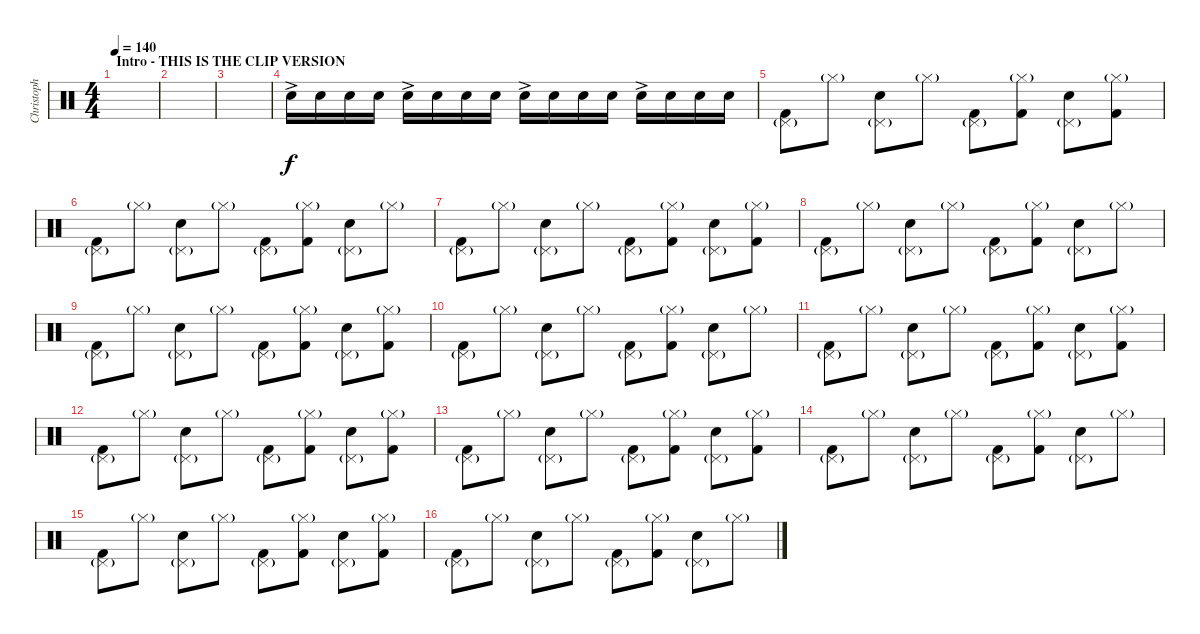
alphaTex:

\track ("Christoph" "Christoph") {instrument percussion}
\staff {score}
\articulation defaults
\ts (4 4)
\section ("" "Intro - THIS IS THE CLIP VERSION")
\tempo 140
\clef neutral
\ks c
|
|
|
"Electric Snare (hit)"{ac}.16 "Electric Snare (hit)".16 "Electric Snare (hit)".16 "Electric Snare (hit)".16 "Electric Snare (hit)"{ac}.16 "Electric Snare (hit)".16 "Electric Snare (hit)".16 "Electric Snare (hit)".16 "Electric Snare (hit)"{ac}.16 "Electric Snare (hit)".16 "Electric Snare (hit)".16 "Electric Snare (hit)".16 "Electric Snare (hit)"{ac}.16 "Electric Snare (hit)".16 "Electric Snare (hit)".16 "Electric Snare (hit)".16 |
("Pedal Hi-Hat (hit)"{g} "Kick (hit) 2").8 "Hi-Hat (closed)"{g}.8 ("Pedal Hi-Hat (hit)"{g} "Electric Snare (hit)").8 "Hi-Hat (closed)"{g}.8 ("Pedal Hi-Hat (hit)"{g} "Kick (hit) 2").8 ("Hi-Hat (closed)"{g} "Kick (hit) 2").8 ("Pedal Hi-Hat (hit)"{g} "Electric Snare (hit)").8 ("Hi-Hat (closed)"{g} "Kick (hit) 2").8 |
("Pedal Hi-Hat (hit)"{g} "Kick (hit) 2").8 "Hi-Hat (closed)"{g}.8 ("Pedal Hi-Hat (hit)"{g} "Electric Snare (hit)").8 "Hi-Hat (closed)"{g}.8 ("Pedal Hi-Hat (hit)"{g} "Kick (hit) 2").8 ("Hi-Hat (closed)"{g} "Kick (hit) 2").8 ("Pedal Hi-Hat (hit)"{g} "Electric Snare (hit)").8 "Hi-Hat (closed)"{g}.8 |
("Pedal Hi-Hat (hit)"{g} "Kick (hit) 2").8 "Hi-Hat (closed)"{g}.8 ("Pedal Hi-Hat (hit)"{g} "Electric Snare (hit)").8 "Hi-Hat (closed)"{g}.8 ("Pedal Hi-Hat (hit)"{g} "Kick (hit) 2").8 ("Hi-Hat (closed)"{g} "Kick (hit) 2").8 ("Pedal Hi-Hat (hit)"{g} "Electric Snare (hit)").8 ("Hi-Hat (closed)"{g} "Kick (hit) 2").8 |
("Pedal Hi-Hat (hit)"{g} "Kick (hit) 2").8 "Hi-Hat (closed)"{g}.8 ("Pedal Hi-Hat (hit)"{g} "Electric Snare (hit)").8 "Hi-Hat (closed)"{g}.8 ("Pedal Hi-Hat (hit)"{g} "Kick (hit) 2").8 ("Hi-Hat (closed)"{g} "Kick (hit) 2").8 ("Pedal Hi-Hat (hit)"{g} "Electric Snare (hit)").8 "Hi-Hat (closed)"{g}.8 |
("Pedal Hi-Hat (hit)"{g} "Kick (hit) 2").8 "Hi-Hat (closed)"{g}.8 ("Pedal Hi-Hat (hit)"{g} "Electric Snare (hit)").8 "Hi-Hat (closed)"{g}.8 ("Pedal Hi-Hat (hit)"{g} "Kick (hit) 2").8 ("Hi-Hat (closed)"{g} "Kick (hit) 2").8 ("Pedal Hi-Hat (hit)"{g} "Electric Snare (hit)").8 ("Hi-Hat (closed)"{g} "Kick (hit) 2").8 |
("Pedal Hi-Hat (hit)"{g} "Kick (hit) 2").8 "Hi-Hat (closed)"{g}.8 ("Pedal Hi-Hat (hit)"{g} "Electric Snare (hit)").8 "Hi-Hat (closed)"{g}.8 ("Pedal Hi-Hat (hit)"{g} "Kick (hit) 2").8 ("Hi-Hat (closed)"{g} "Kick (hit) 2").8 ("Pedal Hi-Hat (hit)"{g} "Electric Snare (hit)").8 "Hi-Hat (closed)"{g}.8 |
("Pedal Hi-Hat (hit)"{g} "Kick (hit) 2").8 "Hi-Hat (closed)"{g}.8 ("Pedal Hi-Hat (hit)"{g} "Electric Snare (hit)").8 "Hi-Hat (closed)"{g}.8 ("Pedal Hi-Hat (hit)"{g} "Kick (hit) 2").8 ("Hi-Hat (closed)"{g} "Kick (hit) 2").8 ("Pedal Hi-Hat (hit)"{g} "Electric Snare (hit)").8 ("Hi-Hat (closed)"{g} "Kick (hit) 2").8 |
("Pedal Hi-Hat (hit)"{g} "Kick (hit) 2").8 "Hi-Hat (closed)"{g}.8 ("Pedal Hi-Hat (hit)"{g} "Electric Snare (hit)").8 "Hi-Hat (closed)"{g}.8 ("Pedal Hi-Hat (hit)"{g} "Kick (hit) 2").8 ("Hi-Hat (closed)"{g} "Kick (hit) 2").8 ("Pedal Hi-Hat (hit)"{g} "Electric Snare (hit)").8 ("Hi-Hat (closed)"{g} "Kick (hit) 2").8 |
("Pedal Hi-Hat (hit)"{g} "Kick (hit) 2").8 "Hi-Hat (closed)"{g}.8 ("Pedal Hi-Hat (hit)"{g} "Electric Snare (hit)").8 "Hi-Hat (closed)"{g}.8 ("Pedal Hi-Hat (hit)"{g} "Kick (hit) 2").8 ("Hi-Hat (closed)"{g} "Kick (hit) 2").8 ("Pedal Hi-Hat (hit)"{g} "Electric Snare (hit)").8 ("Hi-Hat (closed)"{g} "Kick (hit) 2").8 |
("Pedal Hi-Hat (hit)"{g} "Kick (hit) 2").8 "Hi-Hat (closed)"{g}.8 ("Pedal Hi-Hat (hit)"{g} "Electric Snare (hit)").8 "Hi-Hat (closed)"{g}.8 ("Pedal Hi-Hat (hit)"{g} "Kick (hit) 2").8 ("Hi-Hat (closed)"{g} "Kick (hit) 2").8 ("Pedal Hi-Hat (hit)"{g} "Electric Snare (hit)").8 "Hi-Hat (closed)"{g}.8 |
("Pedal Hi-Hat (hit)"{g} "Kick (hit) 2").8 "Hi-Hat (closed)"{g}.8 ("Pedal Hi-Hat (hit)"{g} "Electric Snare (hit)").8 "Hi-Hat (closed)"{g}.8 ("Pedal Hi-Hat (hit)"{g} "Kick (hit) 2").8 ("Hi-Hat (closed)"{g} "Kick (hit) 2").8 ("Pedal Hi-Hat (hit)"{g} "Electric Snare (hit)").8 ("Hi-Hat (closed)"{g} "Kick (hit) 2").8 |
("Pedal Hi-Hat (hit)"{g} "Kick (hit) 2").8 "Hi-Hat (closed)"{g}.8 ("Pedal Hi-Hat (hit)"{g} "Electric Snare (hit)").8 "Hi-Hat (closed)"{g}.8 ("Pedal Hi-Hat (hit)"{g} "Kick (hit) 2").8 ("Hi-Hat (closed)"{g} "Kick (hit) 2").8 ("Pedal Hi-Hat (hit)"{g} "Electric Snare (hit)").8 "Hi-Hat (closed)"{g}.8
